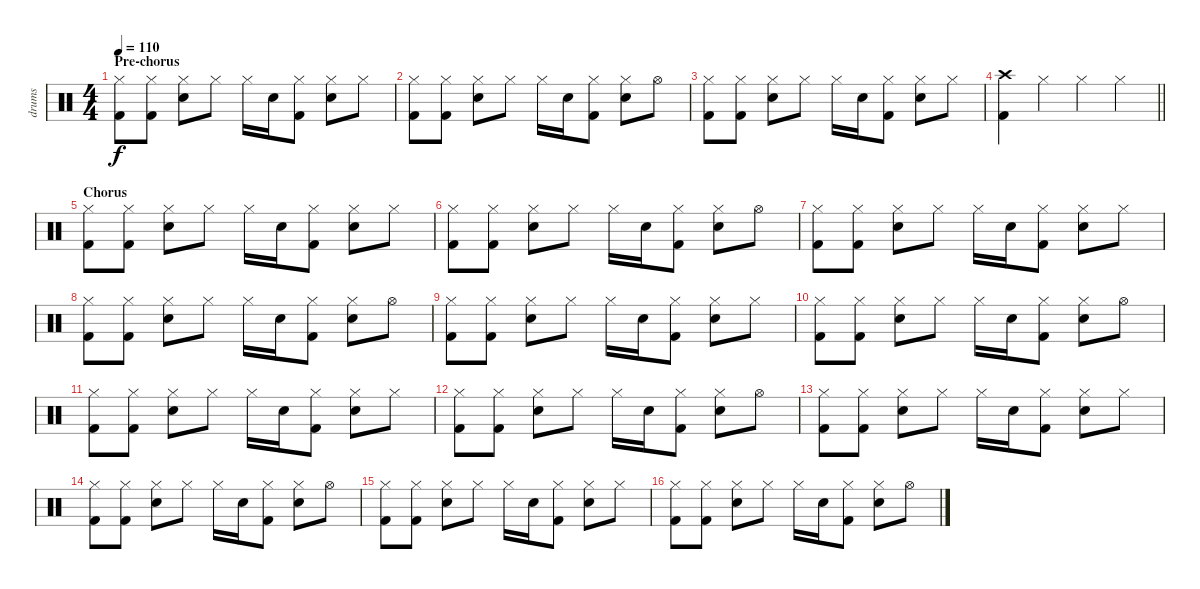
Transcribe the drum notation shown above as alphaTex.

\track ("drums" "drums") {instrument percussion}
\staff {score}
\articulation defaults
\ts (4 4)
\section ("" "Pre-chorus")
\tempo 110
\clef neutral
\ks c
("Hi-Hat (closed)" "Kick (hit) 2").8{dy f} ("Hi-Hat (closed)" "Kick (hit) 2").8 ("Hi-Hat (closed)" "Electric Snare (hit)").8 "Hi-Hat (closed)".8 "Hi-Hat (closed)".16 "Electric Snare (hit)".16 ("Hi-Hat (closed)" "Kick (hit) 2").8 ("Hi-Hat (closed)" "Electric Snare (hit)").8 "Hi-Hat (closed)".8 |
("Hi-Hat (closed)" "Kick (hit) 2").8 ("Hi-Hat (closed)" "Kick (hit) 2").8 ("Hi-Hat (closed)" "Electric Snare (hit)").8 "Hi-Hat (closed)".8 "Hi-Hat (closed)".16 "Electric Snare (hit)".16 ("Hi-Hat (closed)" "Kick (hit) 2").8 ("Hi-Hat (closed)" "Electric Snare (hit)").8 "Hi-Hat (open)".8 |
("Hi-Hat (closed)" "Kick (hit) 2").8 ("Hi-Hat (closed)" "Kick (hit) 2").8 ("Hi-Hat (closed)" "Electric Snare (hit)").8 "Hi-Hat (closed)".8 "Hi-Hat (closed)".16 "Electric Snare (hit)".16 ("Hi-Hat (closed)" "Kick (hit) 2").8 ("Hi-Hat (closed)" "Electric Snare (hit)").8 "Hi-Hat (closed)".8 |
\barLineRight lightlight
("Crash high (hit)" "Kick (hit) 2").4 "Hi-Hat (closed)".4 "Hi-Hat (closed)".4 "Hi-Hat (closed)".4 |
\section ("" "Chorus")
("Hi-Hat (closed)" "Kick (hit) 2").8 ("Hi-Hat (closed)" "Kick (hit) 2").8 ("Hi-Hat (closed)" "Electric Snare (hit)").8 "Hi-Hat (closed)".8 "Hi-Hat (closed)".16 "Electric Snare (hit)".16 ("Hi-Hat (closed)" "Kick (hit) 2").8 ("Hi-Hat (closed)" "Electric Snare (hit)").8 "Hi-Hat (closed)".8 |
("Hi-Hat (closed)" "Kick (hit) 2").8 ("Hi-Hat (closed)" "Kick (hit) 2").8 ("Hi-Hat (closed)" "Electric Snare (hit)").8 "Hi-Hat (closed)".8 "Hi-Hat (closed)".16 "Electric Snare (hit)".16 ("Hi-Hat (closed)" "Kick (hit) 2").8 ("Hi-Hat (closed)" "Electric Snare (hit)").8 "Hi-Hat (open)".8 |
("Hi-Hat (closed)" "Kick (hit) 2").8 ("Hi-Hat (closed)" "Kick (hit) 2").8 ("Hi-Hat (closed)" "Electric Snare (hit)").8 "Hi-Hat (closed)".8 "Hi-Hat (closed)".16 "Electric Snare (hit)".16 ("Hi-Hat (closed)" "Kick (hit) 2").8 ("Hi-Hat (closed)" "Electric Snare (hit)").8 "Hi-Hat (closed)".8 |
("Hi-Hat (closed)" "Kick (hit) 2").8 ("Hi-Hat (closed)" "Kick (hit) 2").8 ("Hi-Hat (closed)" "Electric Snare (hit)").8 "Hi-Hat (closed)".8 "Hi-Hat (closed)".16 "Electric Snare (hit)".16 ("Hi-Hat (closed)" "Kick (hit) 2").8 ("Hi-Hat (closed)" "Electric Snare (hit)").8 "Hi-Hat (open)".8 |
("Hi-Hat (closed)" "Kick (hit) 2").8 ("Hi-Hat (closed)" "Kick (hit) 2").8 ("Hi-Hat (closed)" "Electric Snare (hit)").8 "Hi-Hat (closed)".8 "Hi-Hat (closed)".16 "Electric Snare (hit)".16 ("Hi-Hat (closed)" "Kick (hit) 2").8 ("Hi-Hat (closed)" "Electric Snare (hit)").8 "Hi-Hat (closed)".8 |
("Hi-Hat (closed)" "Kick (hit) 2").8 ("Hi-Hat (closed)" "Kick (hit) 2").8 ("Hi-Hat (closed)" "Electric Snare (hit)").8 "Hi-Hat (closed)".8 "Hi-Hat (closed)".16 "Electric Snare (hit)".16 ("Hi-Hat (closed)" "Kick (hit) 2").8 ("Hi-Hat (closed)" "Electric Snare (hit)").8 "Hi-Hat (open)".8 |
("Hi-Hat (closed)" "Kick (hit) 2").8 ("Hi-Hat (closed)" "Kick (hit) 2").8 ("Hi-Hat (closed)" "Electric Snare (hit)").8 "Hi-Hat (closed)".8 "Hi-Hat (closed)".16 "Electric Snare (hit)".16 ("Hi-Hat (closed)" "Kick (hit) 2").8 ("Hi-Hat (closed)" "Electric Snare (hit)").8 "Hi-Hat (closed)".8 |
("Hi-Hat (closed)" "Kick (hit) 2").8 ("Hi-Hat (closed)" "Kick (hit) 2").8 ("Hi-Hat (closed)" "Electric Snare (hit)").8 "Hi-Hat (closed)".8 "Hi-Hat (closed)".16 "Electric Snare (hit)".16 ("Hi-Hat (closed)" "Kick (hit) 2").8 ("Hi-Hat (closed)" "Electric Snare (hit)").8 "Hi-Hat (open)".8 |
("Hi-Hat (closed)" "Kick (hit) 2").8 ("Hi-Hat (closed)" "Kick (hit) 2").8 ("Hi-Hat (closed)" "Electric Snare (hit)").8 "Hi-Hat (closed)".8 "Hi-Hat (closed)".16 "Electric Snare (hit)".16 ("Hi-Hat (closed)" "Kick (hit) 2").8 ("Hi-Hat (closed)" "Electric Snare (hit)").8 "Hi-Hat (closed)".8 |
("Hi-Hat (closed)" "Kick (hit) 2").8 ("Hi-Hat (closed)" "Kick (hit) 2").8 ("Hi-Hat (closed)" "Electric Snare (hit)").8 "Hi-Hat (closed)".8 "Hi-Hat (closed)".16 "Electric Snare (hit)".16 ("Hi-Hat (closed)" "Kick (hit) 2").8 ("Hi-Hat (closed)" "Electric Snare (hit)").8 "Hi-Hat (open)".8 |
("Hi-Hat (closed)" "Kick (hit) 2").8 ("Hi-Hat (closed)" "Kick (hit) 2").8 ("Hi-Hat (closed)" "Electric Snare (hit)").8 "Hi-Hat (closed)".8 "Hi-Hat (closed)".16 "Electric Snare (hit)".16 ("Hi-Hat (closed)" "Kick (hit) 2").8 ("Hi-Hat (closed)" "Electric Snare (hit)").8 "Hi-Hat (closed)".8 |
("Hi-Hat (closed)" "Kick (hit) 2").8 ("Hi-Hat (closed)" "Kick (hit) 2").8 ("Hi-Hat (closed)" "Electric Snare (hit)").8 "Hi-Hat (closed)".8 "Hi-Hat (closed)".16 "Electric Snare (hit)".16 ("Hi-Hat (closed)" "Kick (hit) 2").8 ("Hi-Hat (closed)" "Electric Snare (hit)").8 "Hi-Hat (open)".8
